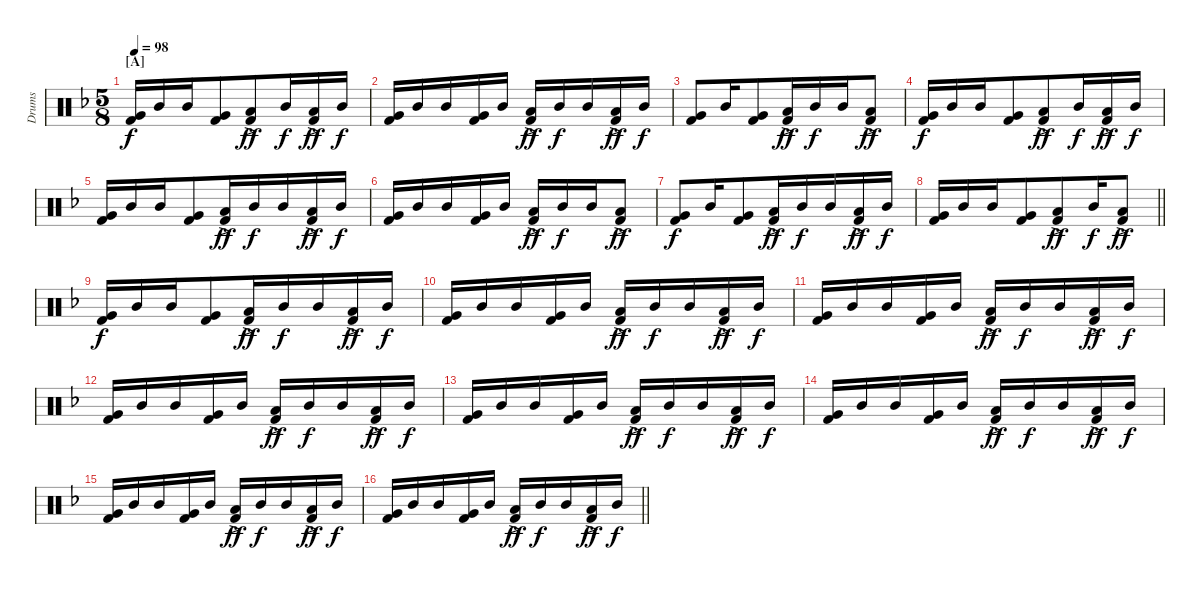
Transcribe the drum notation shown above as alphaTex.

\track ("Drums" "Drums") {instrument percussion}
\staff {score}
\articulation defaults
\ts (5 8)
\section ("" "[A]")
\tempo 98
\clef neutral
\ks dminor
("Very Low Tom (hit)" "Kick (hit) 2").16{dy f} "Mid Tom (hit)".16{beam merge} "Mid Tom (hit)".16 ("Very Low Tom (hit)" "Kick (hit) 2").8 ("Low Tom (hit)"{ac} "Kick (hit) 2").8{dy ff beam merge} "Mid Tom (hit)".16{dy f beam merge} ("Low Tom (hit)"{ac} "Kick (hit) 2").16{dy ff} "Mid Tom (hit)".16{dy f} |
("Very Low Tom (hit)" "Kick (hit) 2").16 "Mid Tom (hit)".16{beam merge} "Mid Tom (hit)".16 ("Very Low Tom (hit)" "Kick (hit) 2").16{beam merge} "Mid Tom (hit)".16{beam split} ("Low Tom (hit)"{ac} "Kick (hit) 2").16{dy ff beam merge} "Mid Tom (hit)".16{dy f} "Mid Tom (hit)".16{beam merge} ("Low Tom (hit)"{ac} "Kick (hit) 2").16{dy ff} "Mid Tom (hit)".16{dy f} |
("Very Low Tom (hit)" "Kick (hit) 2").8{beam merge} "Mid Tom (hit)".16 ("Very Low Tom (hit)" "Kick (hit) 2").8 ("Low Tom (hit)"{ac} "Kick (hit) 2").16{dy ff beam merge} "Mid Tom (hit)".16{dy f} "Mid Tom (hit)".16{beam merge} ("Low Tom (hit)"{ac} "Kick (hit) 2").8{dy ff} |
("Very Low Tom (hit)" "Kick (hit) 2").16{dy f} "Mid Tom (hit)".16{beam merge} "Mid Tom (hit)".16 ("Very Low Tom (hit)" "Kick (hit) 2").8 ("Low Tom (hit)"{ac} "Kick (hit) 2").8{dy ff beam merge} "Mid Tom (hit)".16{dy f beam merge} ("Low Tom (hit)"{ac} "Kick (hit) 2").16{dy ff} "Mid Tom (hit)".16{dy f} |
("Very Low Tom (hit)" "Kick (hit) 2").16 "Mid Tom (hit)".16{beam merge} "Mid Tom (hit)".16 ("Very Low Tom (hit)" "Kick (hit) 2").8 ("Low Tom (hit)"{ac} "Kick (hit) 2").16{dy ff beam merge} "Mid Tom (hit)".16{dy f beam merge} "Mid Tom (hit)".16{beam merge} ("Low Tom (hit)"{ac} "Kick (hit) 2").16{dy ff} "Mid Tom (hit)".16{dy f} |
("Very Low Tom (hit)" "Kick (hit) 2").16 "Mid Tom (hit)".16{beam merge} "Mid Tom (hit)".16 ("Very Low Tom (hit)" "Kick (hit) 2").16{beam merge} "Mid Tom (hit)".16{beam split} ("Low Tom (hit)"{ac} "Kick (hit) 2").16{dy ff beam merge} "Mid Tom (hit)".16{dy f} "Mid Tom (hit)".16{beam merge} ("Low Tom (hit)"{ac} "Kick (hit) 2").8{dy ff} |
("Very Low Tom (hit)" "Kick (hit) 2").8{dy f beam merge} "Mid Tom (hit)".16 ("Very Low Tom (hit)" "Kick (hit) 2").8 ("Low Tom (hit)"{ac} "Kick (hit) 2").16{dy ff beam merge} "Mid Tom (hit)".16{dy f} "Mid Tom (hit)".16{beam merge} ("Low Tom (hit)"{ac} "Kick (hit) 2").16{dy ff} "Mid Tom (hit)".16{dy f} |
\barLineRight lightlight
("Very Low Tom (hit)" "Kick (hit) 2").16 "Mid Tom (hit)".16{beam merge} "Mid Tom (hit)".16 ("Very Low Tom (hit)" "Kick (hit) 2").8 ("Low Tom (hit)"{ac} "Kick (hit) 2").8{dy ff beam merge} "Mid Tom (hit)".16{dy f beam merge} ("Low Tom (hit)"{ac} "Kick (hit) 2").8{dy ff} |
("Very Low Tom (hit)" "Kick (hit) 2").16{dy f} "Mid Tom (hit)".16{beam merge} "Mid Tom (hit)".16 ("Very Low Tom (hit)" "Kick (hit) 2").8 ("Low Tom (hit)"{ac} "Kick (hit) 2").16{dy ff beam merge} "Mid Tom (hit)".16{dy f beam merge} "Mid Tom (hit)".16{beam merge} ("Low Tom (hit)"{ac} "Kick (hit) 2").16{dy ff} "Mid Tom (hit)".16{dy f} |
("Very Low Tom (hit)" "Kick (hit) 2").16 "Mid Tom (hit)".16{beam merge} "Mid Tom (hit)".16 ("Very Low Tom (hit)" "Kick (hit) 2").16{beam merge} "Mid Tom (hit)".16{beam split} ("Low Tom (hit)"{ac} "Kick (hit) 2").16{dy ff beam merge} "Mid Tom (hit)".16{dy f} "Mid Tom (hit)".16{beam merge} ("Low Tom (hit)"{ac} "Kick (hit) 2").16{dy ff} "Mid Tom (hit)".16{dy f} |
("Very Low Tom (hit)" "Kick (hit) 2").16 "Mid Tom (hit)".16{beam merge} "Mid Tom (hit)".16 ("Very Low Tom (hit)" "Kick (hit) 2").16{beam merge} "Mid Tom (hit)".16{beam split} ("Low Tom (hit)"{ac} "Kick (hit) 2").16{dy ff beam merge} "Mid Tom (hit)".16{dy f} "Mid Tom (hit)".16{beam merge} ("Low Tom (hit)"{ac} "Kick (hit) 2").16{dy ff} "Mid Tom (hit)".16{dy f} |
("Very Low Tom (hit)" "Kick (hit) 2").16 "Mid Tom (hit)".16{beam merge} "Mid Tom (hit)".16 ("Very Low Tom (hit)" "Kick (hit) 2").16{beam merge} "Mid Tom (hit)".16{beam split} ("Low Tom (hit)"{ac} "Kick (hit) 2").16{dy ff beam merge} "Mid Tom (hit)".16{dy f} "Mid Tom (hit)".16{beam merge} ("Low Tom (hit)"{ac} "Kick (hit) 2").16{dy ff} "Mid Tom (hit)".16{dy f} |
("Very Low Tom (hit)" "Kick (hit) 2").16 "Mid Tom (hit)".16{beam merge} "Mid Tom (hit)".16 ("Very Low Tom (hit)" "Kick (hit) 2").16{beam merge} "Mid Tom (hit)".16{beam split} ("Low Tom (hit)"{ac} "Kick (hit) 2").16{dy ff beam merge} "Mid Tom (hit)".16{dy f} "Mid Tom (hit)".16{beam merge} ("Low Tom (hit)"{ac} "Kick (hit) 2").16{dy ff} "Mid Tom (hit)".16{dy f} |
("Very Low Tom (hit)" "Kick (hit) 2").16 "Mid Tom (hit)".16{beam merge} "Mid Tom (hit)".16 ("Very Low Tom (hit)" "Kick (hit) 2").16{beam merge} "Mid Tom (hit)".16{beam split} ("Low Tom (hit)"{ac} "Kick (hit) 2").16{dy ff beam merge} "Mid Tom (hit)".16{dy f} "Mid Tom (hit)".16{beam merge} ("Low Tom (hit)"{ac} "Kick (hit) 2").16{dy ff} "Mid Tom (hit)".16{dy f} |
("Very Low Tom (hit)" "Kick (hit) 2").16 "Mid Tom (hit)".16{beam merge} "Mid Tom (hit)".16 ("Very Low Tom (hit)" "Kick (hit) 2").16{beam merge} "Mid Tom (hit)".16{beam split} ("Low Tom (hit)"{ac} "Kick (hit) 2").16{dy ff beam merge} "Mid Tom (hit)".16{dy f} "Mid Tom (hit)".16{beam merge} ("Low Tom (hit)"{ac} "Kick (hit) 2").16{dy ff} "Mid Tom (hit)".16{dy f} |
\barLineRight lightlight
("Very Low Tom (hit)" "Kick (hit) 2").16 "Mid Tom (hit)".16{beam merge} "Mid Tom (hit)".16 ("Very Low Tom (hit)" "Kick (hit) 2").16{beam merge} "Mid Tom (hit)".16{beam split} ("Low Tom (hit)"{ac} "Kick (hit) 2").16{dy ff beam merge} "Mid Tom (hit)".16{dy f} "Mid Tom (hit)".16{beam merge} ("Low Tom (hit)"{ac} "Kick (hit) 2").16{dy ff} "Mid Tom (hit)".16{dy f}
